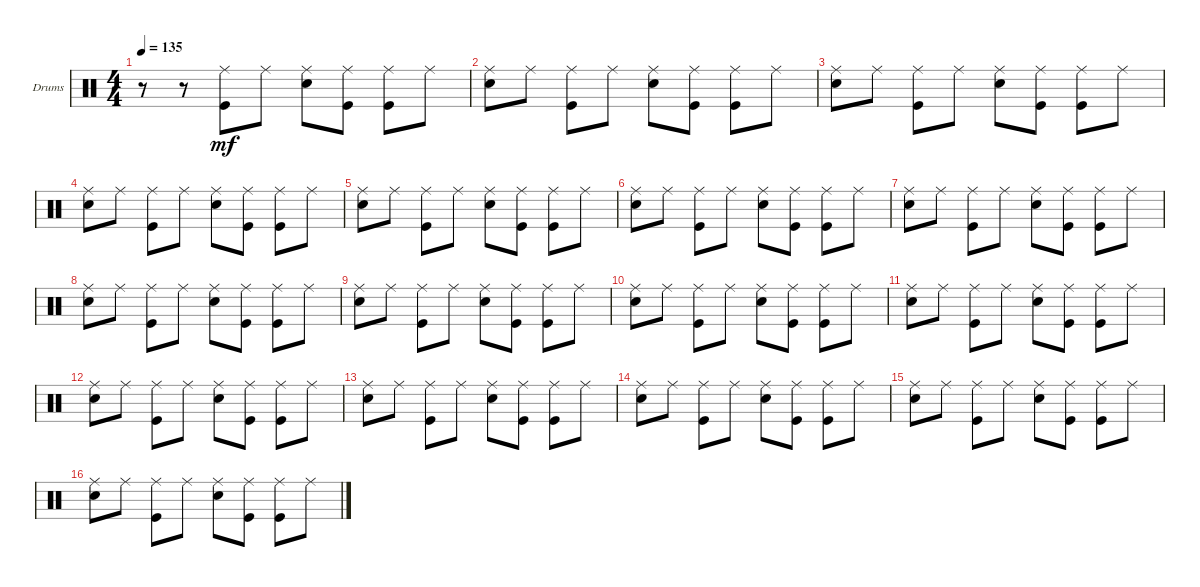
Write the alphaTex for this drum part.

\bracketExtendMode groupsimilarinstruments
\firstSystemTrackNameOrientation horizontal
\otherSystemsTrackNameOrientation horizontal
\track ("Drumkit" "Drums") {instrument percussion}
\staff {score}
\articulation defaults
\ts (4 4)
\tempo 135
\clef neutral
\ks c
r.8{dy mf} r.8 ("Kick (hit)" "Ride (middle)").8 "Ride (middle)".8 ("Snare (hit) 2" "Ride (middle)").8 ("Kick (hit)" "Ride (middle)").8 ("Kick (hit)" "Ride (middle)").8 "Ride (middle)".8 |
("Snare (hit) 2" "Ride (middle)").8 "Ride (middle)".8 ("Kick (hit)" "Ride (middle)").8 "Ride (middle)".8 ("Snare (hit) 2" "Ride (middle)").8 ("Kick (hit)" "Ride (middle)").8 ("Kick (hit)" "Ride (middle)").8 "Ride (middle)".8 |
("Snare (hit) 2" "Ride (middle)").8 "Ride (middle)".8 ("Kick (hit)" "Ride (middle)").8 "Ride (middle)".8 ("Snare (hit) 2" "Ride (middle)").8 ("Kick (hit)" "Ride (middle)").8 ("Kick (hit)" "Ride (middle)").8 "Ride (middle)".8 |
("Snare (hit) 2" "Ride (middle)").8 "Ride (middle)".8 ("Kick (hit)" "Ride (middle)").8 "Ride (middle)".8 ("Snare (hit) 2" "Ride (middle)").8 ("Kick (hit)" "Ride (middle)").8 ("Kick (hit)" "Ride (middle)").8 "Ride (middle)".8 |
("Snare (hit) 2" "Ride (middle)").8 "Ride (middle)".8 ("Kick (hit)" "Ride (middle)").8 "Ride (middle)".8 ("Snare (hit) 2" "Ride (middle)").8 ("Kick (hit)" "Ride (middle)").8 ("Kick (hit)" "Ride (middle)").8 "Ride (middle)".8 |
("Snare (hit) 2" "Ride (middle)").8 "Ride (middle)".8 ("Kick (hit)" "Ride (middle)").8 "Ride (middle)".8 ("Snare (hit) 2" "Ride (middle)").8 ("Kick (hit)" "Ride (middle)").8 ("Kick (hit)" "Ride (middle)").8 "Ride (middle)".8 |
("Snare (hit) 2" "Ride (middle)").8 "Ride (middle)".8 ("Kick (hit)" "Ride (middle)").8 "Ride (middle)".8 ("Snare (hit) 2" "Ride (middle)").8 ("Kick (hit)" "Ride (middle)").8 ("Kick (hit)" "Ride (middle)").8 "Ride (middle)".8 |
("Snare (hit) 2" "Ride (middle)").8 "Ride (middle)".8 ("Kick (hit)" "Ride (middle)").8 "Ride (middle)".8 ("Snare (hit) 2" "Ride (middle)").8 ("Kick (hit)" "Ride (middle)").8 ("Kick (hit)" "Ride (middle)").8 "Ride (middle)".8 |
("Snare (hit) 2" "Ride (middle)").8 "Ride (middle)".8 ("Kick (hit)" "Ride (middle)").8 "Ride (middle)".8 ("Snare (hit) 2" "Ride (middle)").8 ("Kick (hit)" "Ride (middle)").8 ("Kick (hit)" "Ride (middle)").8 "Ride (middle)".8 |
("Snare (hit) 2" "Ride (middle)").8 "Ride (middle)".8 ("Kick (hit)" "Ride (middle)").8 "Ride (middle)".8 ("Snare (hit) 2" "Ride (middle)").8 ("Kick (hit)" "Ride (middle)").8 ("Kick (hit)" "Ride (middle)").8 "Ride (middle)".8 |
("Snare (hit) 2" "Ride (middle)").8 "Ride (middle)".8 ("Kick (hit)" "Ride (middle)").8 "Ride (middle)".8 ("Snare (hit) 2" "Ride (middle)").8 ("Kick (hit)" "Ride (middle)").8 ("Kick (hit)" "Ride (middle)").8 "Ride (middle)".8 |
("Snare (hit) 2" "Ride (middle)").8 "Ride (middle)".8 ("Kick (hit)" "Ride (middle)").8 "Ride (middle)".8 ("Snare (hit) 2" "Ride (middle)").8 ("Kick (hit)" "Ride (middle)").8 ("Kick (hit)" "Ride (middle)").8 "Ride (middle)".8 |
("Snare (hit) 2" "Ride (middle)").8 "Ride (middle)".8 ("Kick (hit)" "Ride (middle)").8 "Ride (middle)".8 ("Snare (hit) 2" "Ride (middle)").8 ("Kick (hit)" "Ride (middle)").8 ("Kick (hit)" "Ride (middle)").8 "Ride (middle)".8 |
("Snare (hit) 2" "Ride (middle)").8 "Ride (middle)".8 ("Kick (hit)" "Ride (middle)").8 "Ride (middle)".8 ("Snare (hit) 2" "Ride (middle)").8 ("Kick (hit)" "Ride (middle)").8 ("Kick (hit)" "Ride (middle)").8 "Ride (middle)".8 |
("Snare (hit) 2" "Ride (middle)").8 "Ride (middle)".8 ("Kick (hit)" "Ride (middle)").8 "Ride (middle)".8 ("Snare (hit) 2" "Ride (middle)").8 ("Kick (hit)" "Ride (middle)").8 ("Kick (hit)" "Ride (middle)").8 "Ride (middle)".8 |
("Snare (hit) 2" "Ride (middle)").8 "Ride (middle)".8 ("Kick (hit)" "Ride (middle)").8 "Ride (middle)".8 ("Snare (hit) 2" "Ride (middle)").8 ("Kick (hit)" "Ride (middle)").8 ("Kick (hit)" "Ride (middle)").8 "Ride (middle)".8
